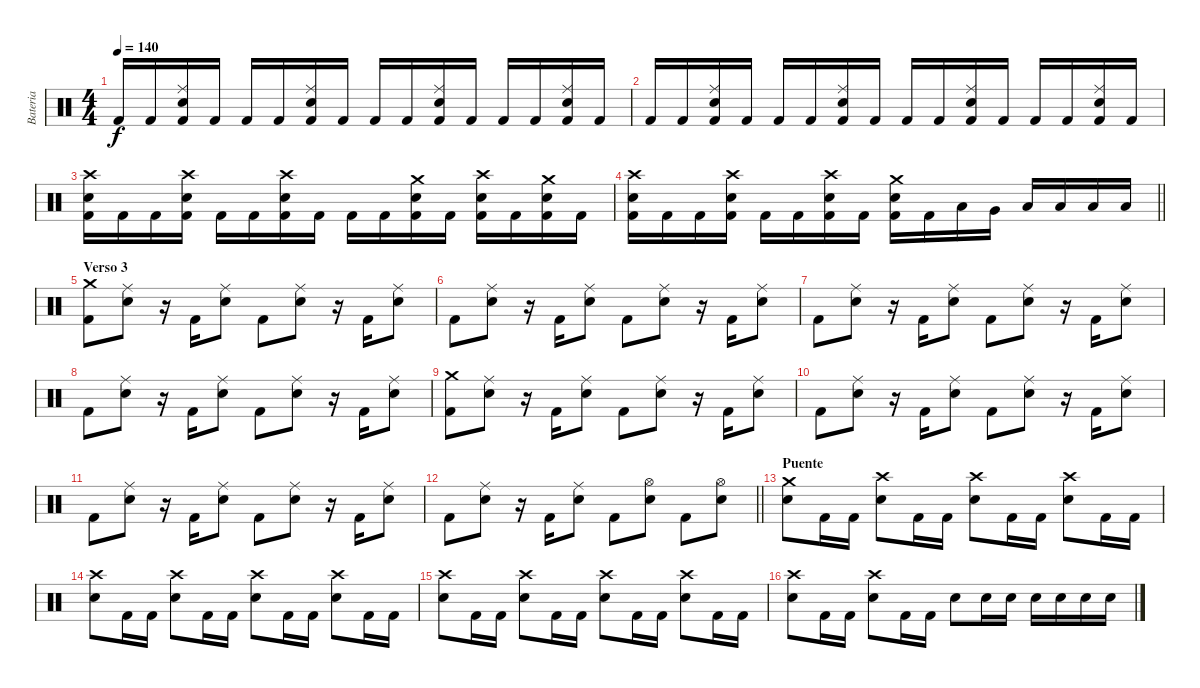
\track ("Bateria" "Bateria") {instrument percussion}
\staff {score}
\articulation defaults
\ts (4 4)
\tempo 140
\clef neutral
\ks c "Kick (hit) 2".16{dy f} "Kick (hit) 2".16
("Ride (middle)" "Snare (hit) 2" "Kick (hit) 2").16 "Kick (hit) 2".16 "Kick (hit) 2".16 "Kick (hit) 2".16 ("Ride (middle)" "Snare (hit) 2" "Kick (hit) 2").16 "Kick (hit) 2".16 "Kick (hit) 2".16 "Kick (hit) 2".16 ("Ride (middle)" "Snare (hit) 2" "Kick (hit) 2").16 "Kick (hit) 2".16 "Kick (hit) 2".16 "Kick (hit) 2".16 ("Ride (middle)" "Snare (hit) 2" "Kick (hit) 2").16 "Kick (hit) 2".16 |
"Kick (hit) 2".16 "Kick (hit) 2".16 ("Ride (middle)" "Snare (hit) 2" "Kick (hit) 2").16 "Kick (hit) 2".16 "Kick (hit) 2".16 "Kick (hit) 2".16 ("Ride (middle)" "Snare (hit) 2" "Kick (hit) 2").16 "Kick (hit) 2".16 "Kick (hit) 2".16 "Kick (hit) 2".16 ("Ride (middle)" "Snare (hit) 2" "Kick (hit) 2").16 "Kick (hit) 2".16 "Kick (hit) 2".16 "Kick (hit) 2".16 ("Ride (middle)" "Snare (hit) 2" "Kick (hit) 2").16 "Kick (hit) 2".16 |
("Crash high (hit)" "Snare (hit) 2" "Kick (hit) 2").16 "Kick (hit) 2".16 "Kick (hit) 2".16 ("Crash high (hit)" "Snare (hit) 2" "Kick (hit) 2").16 "Kick (hit) 2".16 "Kick (hit) 2".16 ("Crash high (hit)" "Snare (hit) 2" "Kick (hit) 2").16 "Kick (hit) 2".16 "Kick (hit) 2".16 "Kick (hit) 2".16 ("Crash medium (hit)" "Snare (hit) 2" "Kick (hit) 2").16 "Kick (hit) 2".16 ("Crash high (hit)" "Snare (hit) 2" "Kick (hit) 2").16 "Kick (hit) 2".16 ("Crash medium (hit)" "Snare (hit) 2" "Kick (hit) 2").16 "Kick (hit) 2".16 |
\barLineRight lightlight
("Crash high (hit)" "Snare (hit) 2" "Kick (hit) 2").16 "Kick (hit) 2".16 "Kick (hit) 2".16 ("Crash high (hit)" "Snare (hit) 2" "Kick (hit) 2").16 "Kick (hit) 2".16 "Kick (hit) 2".16 ("Crash high (hit)" "Snare (hit) 2" "Kick (hit) 2").16 "Kick (hit) 2".16 ("Crash medium (hit)" "Snare (hit) 2" "Kick (hit) 2").16 "Kick (hit) 2".16 "Low Tom (hit)".16 "Very Low Tom (hit)".16 "Low Floor Tom (hit)".16 "Low Floor Tom (hit)".16 "Low Floor Tom (hit)".16 "Low Floor Tom (hit)".16 |
\section ("" "Verso 3")
("Crash medium (hit)" "Kick (hit) 2").8 ("Ride (middle)" "Snare (hit) 2").8 r.16 "Kick (hit) 2".16 ("Ride (middle)" "Snare (hit) 2").8 "Kick (hit) 2".8 ("Ride (middle)" "Snare (hit) 2").8 r.16 "Kick (hit) 2".16 ("Ride (middle)" "Snare (hit) 2").8 |
"Kick (hit) 2".8 ("Ride (middle)" "Snare (hit) 2").8 r.16 "Kick (hit) 2".16 ("Ride (middle)" "Snare (hit) 2").8 "Kick (hit) 2".8 ("Ride (middle)" "Snare (hit) 2").8 r.16 "Kick (hit) 2".16 ("Ride (middle)" "Snare (hit) 2").8 |
"Kick (hit) 2".8 ("Ride (middle)" "Snare (hit) 2").8 r.16 "Kick (hit) 2".16 ("Ride (middle)" "Snare (hit) 2").8 "Kick (hit) 2".8 ("Ride (middle)" "Snare (hit) 2").8 r.16 "Kick (hit) 2".16 ("Ride (middle)" "Snare (hit) 2").8 |
"Kick (hit) 2".8 ("Ride (middle)" "Snare (hit) 2").8 r.16 "Kick (hit) 2".16 ("Ride (middle)" "Snare (hit) 2").8 "Kick (hit) 2".8 ("Ride (middle)" "Snare (hit) 2").8 r.16 "Kick (hit) 2".16 ("Ride (middle)" "Snare (hit) 2").8 |
("Crash medium (hit)" "Kick (hit) 2").8 ("Ride (middle)" "Snare (hit) 2").8 r.16 "Kick (hit) 2".16 ("Ride (middle)" "Snare (hit) 2").8 "Kick (hit) 2".8 ("Ride (middle)" "Snare (hit) 2").8 r.16 "Kick (hit) 2".16 ("Ride (middle)" "Snare (hit) 2").8 |
"Kick (hit) 2".8 ("Ride (middle)" "Snare (hit) 2").8 r.16 "Kick (hit) 2".16 ("Ride (middle)" "Snare (hit) 2").8 "Kick (hit) 2".8 ("Ride (middle)" "Snare (hit) 2").8 r.16 "Kick (hit) 2".16 ("Ride (middle)" "Snare (hit) 2").8 |
"Kick (hit) 2".8 ("Ride (middle)" "Snare (hit) 2").8 r.16 "Kick (hit) 2".16 ("Ride (middle)" "Snare (hit) 2").8 "Kick (hit) 2".8 ("Ride (middle)" "Snare (hit) 2").8 r.16 "Kick (hit) 2".16 ("Ride (middle)" "Snare (hit) 2").8 |
\barLineRight lightlight "Kick (hit) 2".8
("Ride (middle)" "Snare (hit) 2").8 r.16 "Kick (hit) 2".16 ("Ride (middle)" "Snare (hit) 2").8 "Kick (hit) 2".8 ("Hi-Hat (open)" "Snare (hit) 2").8 "Kick (hit) 2".8 ("Hi-Hat (open)" "Snare (hit) 2").8 |
\section ("" "Puente")
("Crash medium (hit)" "Snare (hit) 2").8 "Kick (hit) 2".16 "Kick (hit) 2".16 ("Crash high (hit)" "Snare (hit) 2").8 "Kick (hit) 2".16 "Kick (hit) 2".16 ("Crash high (hit)" "Snare (hit) 2").8 "Kick (hit) 2".16 "Kick (hit) 2".16 ("Crash high (hit)" "Snare (hit) 2").8 "Kick (hit) 2".16 "Kick (hit) 2".16 |
("Crash high (hit)" "Snare (hit) 2").8 "Kick (hit) 2".16 "Kick (hit) 2".16 ("Crash high (hit)" "Snare (hit) 2").8 "Kick (hit) 2".16 "Kick (hit) 2".16 ("Crash high (hit)" "Snare (hit) 2").8 "Kick (hit) 2".16 "Kick (hit) 2".16 ("Crash high (hit)" "Snare (hit) 2").8 "Kick (hit) 2".16 "Kick (hit) 2".16 |
("Crash high (hit)" "Snare (hit) 2").8 "Kick (hit) 2".16 "Kick (hit) 2".16 ("Crash high (hit)" "Snare (hit) 2").8 "Kick (hit) 2".16 "Kick (hit) 2".16 ("Crash high (hit)" "Snare (hit) 2").8 "Kick (hit) 2".16 "Kick (hit) 2".16 ("Crash high (hit)" "Snare (hit) 2").8 "Kick (hit) 2".16 "Kick (hit) 2".16 |
("Crash high (hit)" "Snare (hit) 2").8 "Kick (hit) 2".16 "Kick (hit) 2".16 ("Crash high (hit)" "Snare (hit) 2").8 "Kick (hit) 2".16 "Kick (hit) 2".16 "Snare (hit) 2".8 "Snare (hit) 2".16 "Snare (hit) 2".16 "Snare (hit) 2".16 "Snare (hit) 2".16 "Snare (hit) 2".16 "Snare (hit) 2".16
